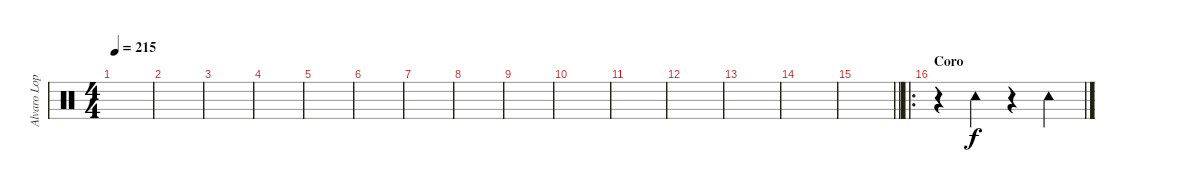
\track ("Alvaro Lopez" "Alvaro Lop") {instrument percussion}
\staff {score}
\articulation defaults
\ts (4 4)
\tempo 215
\clef neutral
\ks c
|
|
|
|
|
|
|
|
|
|
|
|
|
|
\barLineRight lightlight
|
\ro
\section ("" "Coro")
r.4 "Tambourine (hit)".4 r.4 "Tambourine (hit)".4
